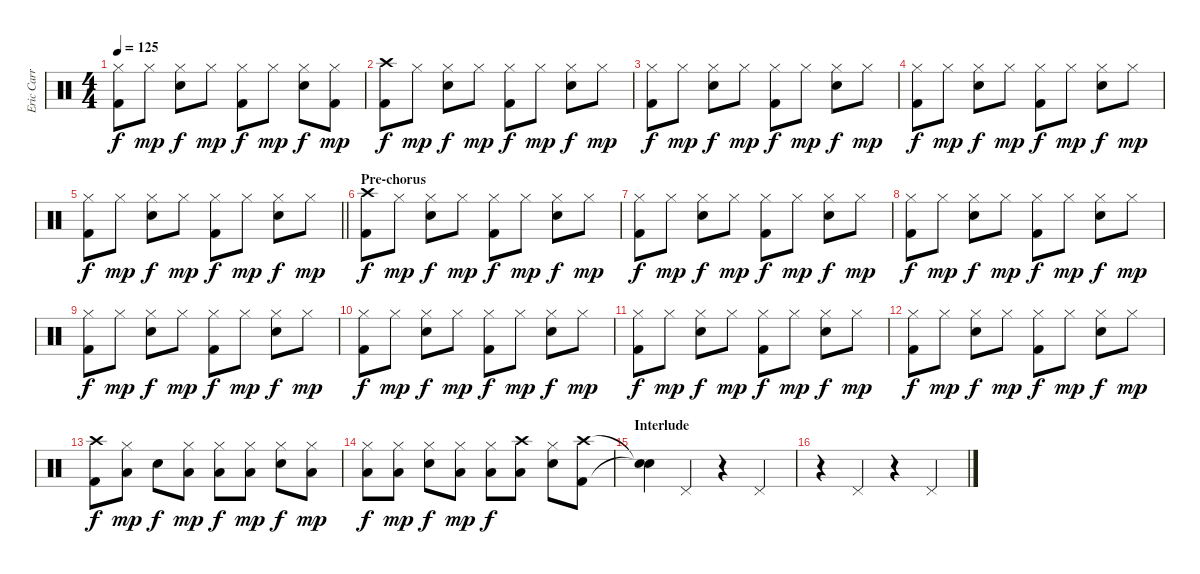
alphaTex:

\track ("Eric Carr" "Eric Carr") {instrument percussion}
\staff {score}
\articulation defaults
\ts (4 4)
\tempo 125
\clef neutral
\ks c
("Hi-Hat (closed)" "Kick (hit) 2").8{dy f} "Hi-Hat (closed)".8{dy mp} ("Hi-Hat (closed)" "Snare (hit) 2").8{dy f} "Hi-Hat (closed)".8{dy mp} ("Hi-Hat (closed)" "Kick (hit) 2").8{dy f} "Hi-Hat (closed)".8{dy mp} ("Hi-Hat (closed)" "Snare (hit) 2").8{dy f} ("Hi-Hat (closed)" "Kick (hit) 2").8{dy mp} |
("Crash high (hit)" "Kick (hit) 2").8{dy f} "Hi-Hat (closed)".8{dy mp} ("Hi-Hat (closed)" "Snare (hit) 2").8{dy f} "Hi-Hat (closed)".8{dy mp} ("Hi-Hat (closed)" "Kick (hit) 2").8{dy f} "Hi-Hat (closed)".8{dy mp} ("Hi-Hat (closed)" "Snare (hit) 2").8{dy f} "Hi-Hat (closed)".8{dy mp} |
("Hi-Hat (closed)" "Kick (hit) 2").8{dy f} "Hi-Hat (closed)".8{dy mp} ("Hi-Hat (closed)" "Snare (hit) 2").8{dy f} "Hi-Hat (closed)".8{dy mp} ("Hi-Hat (closed)" "Kick (hit) 2").8{dy f} "Hi-Hat (closed)".8{dy mp} ("Hi-Hat (closed)" "Snare (hit) 2").8{dy f} "Hi-Hat (closed)".8{dy mp} |
("Hi-Hat (closed)" "Kick (hit) 2").8{dy f} "Hi-Hat (closed)".8{dy mp} ("Hi-Hat (closed)" "Snare (hit) 2").8{dy f} "Hi-Hat (closed)".8{dy mp} ("Hi-Hat (closed)" "Kick (hit) 2").8{dy f} "Hi-Hat (closed)".8{dy mp} ("Hi-Hat (closed)" "Snare (hit) 2").8{dy f} "Hi-Hat (closed)".8{dy mp} |
\barLineRight lightlight
("Hi-Hat (closed)" "Kick (hit) 2").8{dy f} "Hi-Hat (closed)".8{dy mp} ("Hi-Hat (closed)" "Snare (hit) 2").8{dy f} "Hi-Hat (closed)".8{dy mp} ("Hi-Hat (closed)" "Kick (hit) 2").8{dy f} "Hi-Hat (closed)".8{dy mp} ("Hi-Hat (closed)" "Snare (hit) 2").8{dy f} "Hi-Hat (closed)".8{dy mp} |
\section ("" "Pre-chorus")
("Crash high (hit)" "Kick (hit) 2").8{dy f} "Hi-Hat (closed)".8{dy mp} ("Hi-Hat (closed)" "Snare (hit) 2").8{dy f} "Hi-Hat (closed)".8{dy mp} ("Hi-Hat (closed)" "Kick (hit) 2").8{dy f} "Hi-Hat (closed)".8{dy mp} ("Hi-Hat (closed)" "Snare (hit) 2").8{dy f} "Hi-Hat (closed)".8{dy mp} |
("Hi-Hat (closed)" "Kick (hit) 2").8{dy f} "Hi-Hat (closed)".8{dy mp} ("Hi-Hat (closed)" "Snare (hit) 2").8{dy f} "Hi-Hat (closed)".8{dy mp} ("Hi-Hat (closed)" "Kick (hit) 2").8{dy f} "Hi-Hat (closed)".8{dy mp} ("Hi-Hat (closed)" "Snare (hit) 2").8{dy f} "Hi-Hat (closed)".8{dy mp} |
("Hi-Hat (closed)" "Kick (hit) 2").8{dy f} "Hi-Hat (closed)".8{dy mp} ("Hi-Hat (closed)" "Snare (hit) 2").8{dy f} "Hi-Hat (closed)".8{dy mp} ("Hi-Hat (closed)" "Kick (hit) 2").8{dy f} "Hi-Hat (closed)".8{dy mp} ("Hi-Hat (closed)" "Snare (hit) 2").8{dy f} "Hi-Hat (closed)".8{dy mp} |
("Hi-Hat (closed)" "Kick (hit) 2").8{dy f} "Hi-Hat (closed)".8{dy mp} ("Hi-Hat (closed)" "Snare (hit) 2").8{dy f} "Hi-Hat (closed)".8{dy mp} ("Hi-Hat (closed)" "Kick (hit) 2").8{dy f} "Hi-Hat (closed)".8{dy mp} ("Hi-Hat (closed)" "Snare (hit) 2").8{dy f} "Hi-Hat (closed)".8{dy mp} |
("Hi-Hat (closed)" "Kick (hit) 2").8{dy f} "Hi-Hat (closed)".8{dy mp} ("Hi-Hat (closed)" "Snare (hit) 2").8{dy f} "Hi-Hat (closed)".8{dy mp} ("Hi-Hat (closed)" "Kick (hit) 2").8{dy f} "Hi-Hat (closed)".8{dy mp} ("Hi-Hat (closed)" "Snare (hit) 2").8{dy f} "Hi-Hat (closed)".8{dy mp} |
("Hi-Hat (closed)" "Kick (hit) 2").8{dy f} "Hi-Hat (closed)".8{dy mp} ("Hi-Hat (closed)" "Snare (hit) 2").8{dy f} "Hi-Hat (closed)".8{dy mp} ("Hi-Hat (closed)" "Kick (hit) 2").8{dy f} "Hi-Hat (closed)".8{dy mp} ("Hi-Hat (closed)" "Snare (hit) 2").8{dy f} "Hi-Hat (closed)".8{dy mp} |
("Hi-Hat (closed)" "Kick (hit) 2").8{dy f} "Hi-Hat (closed)".8{dy mp} ("Hi-Hat (closed)" "Snare (hit) 2").8{dy f} "Hi-Hat (closed)".8{dy mp} ("Hi-Hat (closed)" "Kick (hit) 2").8{dy f} "Hi-Hat (closed)".8{dy mp} ("Hi-Hat (closed)" "Snare (hit) 2").8{dy f} "Hi-Hat (closed)".8{dy mp} |
("Crash high (hit)" "Kick (hit) 2").8{dy f} ("Hi-Hat (closed)" "Low Floor Tom (hit)").8{dy mp} "Snare (hit) 2".8{dy f} ("Hi-Hat (closed)" "Low Floor Tom (hit)").8{dy mp} ("Hi-Hat (closed)" "Low Floor Tom (hit)").8{dy f} ("Hi-Hat (closed)" "Low Floor Tom (hit)").8{dy mp} ("Hi-Hat (closed)" "Snare (hit) 2").8{dy f} ("Hi-Hat (closed)" "Low Floor Tom (hit)").8{dy mp} |
("Hi-Hat (closed)" "Low Floor Tom (hit)").8{dy f} ("Hi-Hat (closed)" "Low Floor Tom (hit)").8{dy mp} ("Hi-Hat (closed)" "Snare (hit) 2").8{dy f} ("Hi-Hat (closed)" "Low Floor Tom (hit)").8{dy mp} ("Hi-Hat (closed)" "Low Floor Tom (hit)").8{dy f} ("Crash high (hit)" "Low Floor Tom (hit)").8 ("Hi-Hat (closed)" "Snare (hit) 2").8 ("Crash high (hit)" "Kick (hit) 2").8 |
\section ("" "Interlude")
("Snare (hit)"{t} "Snare (hit)"{t}).4 "Pedal Hi-Hat (hit)".4 r.4 "Pedal Hi-Hat (hit)".4 |
r.4 "Pedal Hi-Hat (hit)".4 r.4 "Pedal Hi-Hat (hit)".4
